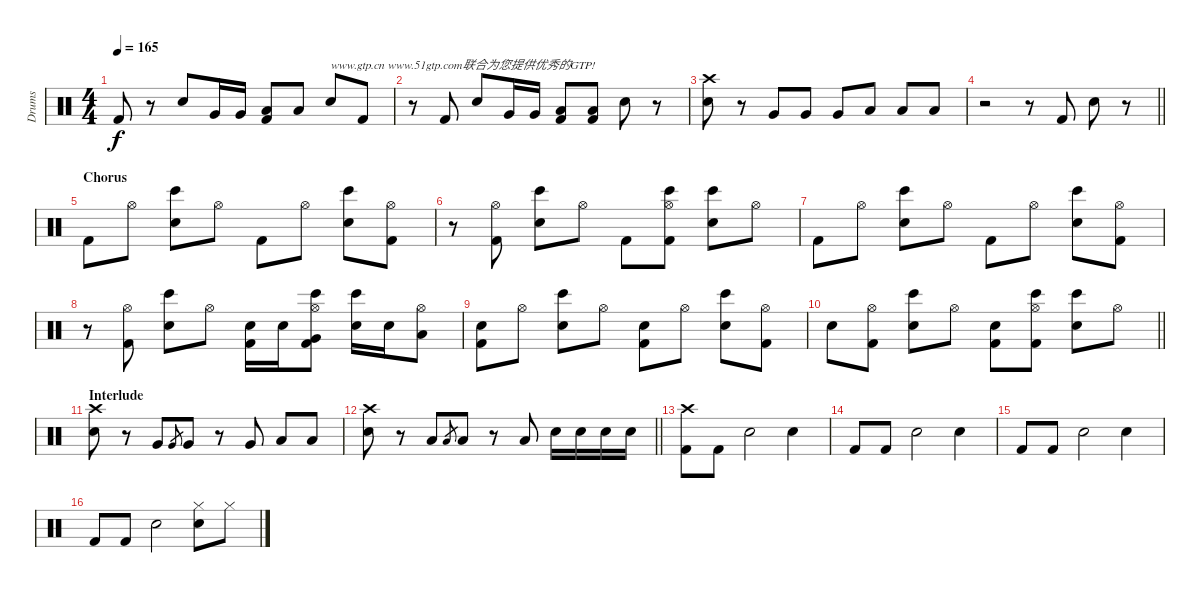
\track ("Drums" "Drums") {instrument percussion}
\staff {score}
\articulation defaults
\ts (4 4)
\tempo 165
\clef neutral
\ks c "Kick (hit) 2".8{dy f}
r.8 "Electric Snare (hit)".8 "Very Low Tom (hit)".16 "Very Low Tom (hit)".16 ("Kick (hit) 2" "Low Floor Tom (hit)").8 "Low Floor Tom (hit)".8 "Electric Snare (hit)".8{txt "www.gtp.cn www.51gtp.com联合为您提供优秀的GTP!"} "Kick (hit) 2".8 |
r.8 "Kick (hit) 2".8 "Electric Snare (hit)".8 "Very Low Tom (hit)".16 "Very Low Tom (hit)".16 ("Kick (hit) 2" "Low Floor Tom (hit)").8 ("Kick (hit) 2" "Low Floor Tom (hit)").8 "Electric Snare (hit)".8 r.8 |
("Crash high (hit)" "Electric Snare (hit)").8 r.8 "Very Low Tom (hit)".8 "Very Low Tom (hit)".8 "Very Low Tom (hit)".8 "Low Floor Tom (hit)".8 "Low Floor Tom (hit)".8 "Low Floor Tom (hit)".8 |
\barLineRight lightlight
r.2 r.8 "Kick (hit) 2".8 "Electric Snare (hit)".8 r.8 |
\section ("" "Chorus")
"Kick (hit) 2".8 "Hi-Hat (open)".8 ("Electric Snare (hit)" "Bongo High (hit)").8 "Hi-Hat (open)".8 "Kick (hit) 2".8 "Hi-Hat (open)".8 ("Electric Snare (hit)" "Bongo High (hit)").8 ("Hi-Hat (open)" "Kick (hit) 2").8 |
r.8 ("Hi-Hat (open)" "Kick (hit) 2").8 ("Electric Snare (hit)" "Bongo High (hit)").8 "Hi-Hat (open)".8 "Kick (hit) 2".8 ("Hi-Hat (open)" "Kick (hit) 2" "Bongo High (hit)").8 ("Electric Snare (hit)" "Bongo High (hit)").8 "Hi-Hat (open)".8 |
"Kick (hit) 2".8 "Hi-Hat (open)".8 ("Electric Snare (hit)" "Bongo High (hit)").8 "Hi-Hat (open)".8 "Kick (hit) 2".8 "Hi-Hat (open)".8 ("Electric Snare (hit)" "Bongo High (hit)").8 ("Hi-Hat (open)" "Kick (hit) 2").8 |
r.8 ("Hi-Hat (open)" "Kick (hit) 2").8 ("Electric Snare (hit)" "Bongo High (hit)").8 "Hi-Hat (open)".8 ("Kick (hit) 2" "Electric Snare (hit)").16 "Electric Snare (hit)".16 ("Hi-Hat (open)" "Kick (hit) 2" "Very Low Tom (hit)" "Bongo High (hit)").8 ("Electric Snare (hit)" "Bongo High (hit)").16 "Electric Snare (hit)".16 ("Hi-Hat (open)" "Low Floor Tom (hit)").8 |
("Kick (hit) 2" "Electric Snare (hit)").8 "Hi-Hat (open)".8 ("Electric Snare (hit)" "Bongo High (hit)").8 "Hi-Hat (open)".8 ("Kick (hit) 2" "Electric Snare (hit)").8 "Hi-Hat (open)".8 ("Electric Snare (hit)" "Bongo High (hit)").8 ("Hi-Hat (open)" "Kick (hit) 2").8 |
\barLineRight lightlight "Electric Snare (hit)".8
("Hi-Hat (open)" "Kick (hit) 2").8 ("Electric Snare (hit)" "Bongo High (hit)").8 "Hi-Hat (open)".8 ("Kick (hit) 2" "Electric Snare (hit)").8 ("Hi-Hat (open)" "Kick (hit) 2" "Bongo High (hit)").8 ("Electric Snare (hit)" "Bongo High (hit)").8 "Hi-Hat (open)".8 |
\section ("" "Interlude")
("Crash high (hit)" "Electric Snare (hit)").8 r.8 "Very Low Tom (hit)".8 "Very Low Tom (hit)".8{gr} "Very Low Tom (hit)".8 r.8 "Very Low Tom (hit)".8 "Low Floor Tom (hit)".8 "Low Floor Tom (hit)".8 |
\barLineRight lightlight
("Crash high (hit)" "Electric Snare (hit)").8 r.8 "Low Tom (hit)".8 "Low Tom (hit)".8{gr} "Low Tom (hit)".8 r.8 "Low Tom (hit)".8 "Electric Snare (hit)".16 "Electric Snare (hit)".16 "Electric Snare (hit)".16 "Electric Snare (hit)".16 |
("Crash high (hit)" "Kick (hit) 2").8 "Kick (hit) 2".8 "Electric Snare (hit)".2 "Electric Snare (hit)".4 |
"Kick (hit) 2".8 "Kick (hit) 2".8 "Electric Snare (hit)".2 "Electric Snare (hit)".4 |
"Kick (hit) 2".8 "Kick (hit) 2".8 "Electric Snare (hit)".2 "Electric Snare (hit)".4 |
"Kick (hit) 2".8 "Kick (hit) 2".8 "Electric Snare (hit)".2 ("Hi-Hat (closed)" "Electric Snare (hit)").8 "Hi-Hat (closed)".8
